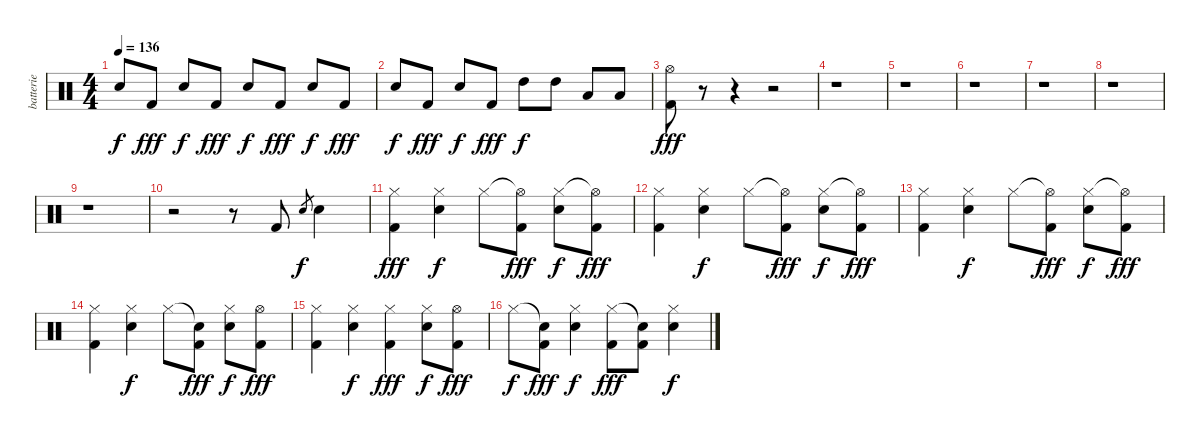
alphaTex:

\track ("batterie" "batterie") {instrument percussion}
\staff {score}
\articulation defaults
\ts (4 4)
\tempo 136
\clef neutral
\ks c "Electric Snare (hit)".8{dy f} "Kick (hit) 2".8{dy fff} "Electric Snare (hit)".8{dy f} "Kick (hit) 2".8{dy fff} "Electric Snare (hit)".8{dy f} "Kick (hit) 2".8{dy fff} "Electric Snare (hit)".8{dy f} "Kick (hit) 2".8{dy fff}
|
"Electric Snare (hit)".8{dy f} "Kick (hit) 2".8{dy fff} "Electric Snare (hit)".8{dy f} "Kick (hit) 2".8{dy fff} "High Tom (hit)".8{dy f} "High Tom (hit)".8 "Low Tom (hit)".8 "Low Tom (hit)".8 |
("Hi-Hat (open)" "Kick (hit) 2").8{dy fff} r.8 r.4 r.2 |
r.1 |
r.1 |
r.1 |
r.1 |
r.1 |
r.1 |
r.2 r.8 "Kick (hit) 2".8 "Electric Snare (hit)".8{gr dy f} "Electric Snare (hit)".4 |
("Hi-Hat (closed)" "Kick (hit) 2").4{dy fff} ("Hi-Hat (closed)" "Electric Snare (hit)").4{dy f} "Hi-Hat (closed)".8 ("Hi-Hat (open)"{t} "Kick (hit) 2").8{dy fff} ("Hi-Hat (closed)" "Electric Snare (hit)").8{dy f} ("Hi-Hat (open)"{t} "Kick (hit) 2").8{dy fff} |
("Hi-Hat (closed)" "Kick (hit) 2").4 ("Hi-Hat (closed)" "Electric Snare (hit)").4{dy f} "Hi-Hat (closed)".8 ("Hi-Hat (open)"{t} "Kick (hit) 2").8{dy fff} ("Hi-Hat (closed)" "Electric Snare (hit)").8{dy f} ("Hi-Hat (open)"{t} "Kick (hit) 2").8{dy fff} |
("Hi-Hat (closed)" "Kick (hit) 2").4 ("Hi-Hat (closed)" "Electric Snare (hit)").4{dy f} "Hi-Hat (closed)".8 ("Hi-Hat (open)"{t} "Kick (hit) 2").8{dy fff} ("Hi-Hat (closed)" "Electric Snare (hit)").8{dy f} ("Hi-Hat (open)"{t} "Kick (hit) 2").8{dy fff} |
("Hi-Hat (closed)" "Kick (hit) 2").4 ("Hi-Hat (closed)" "Electric Snare (hit)").4{dy f} "Hi-Hat (closed)".8 ("Snare (hit)"{t} "Kick (hit) 2").8{dy fff} ("Hi-Hat (closed)" "Electric Snare (hit)").8{dy f} ("Hi-Hat (open)" "Kick (hit) 2").8{dy fff} |
("Hi-Hat (closed)" "Kick (hit) 2").4 ("Hi-Hat (closed)" "Electric Snare (hit)").4{dy f} ("Hi-Hat (closed)" "Kick (hit) 2").4{dy fff} ("Hi-Hat (closed)" "Electric Snare (hit)").8{dy f} ("Hi-Hat (open)" "Kick (hit) 2").8{dy fff} |
"Hi-Hat (closed)".8{dy f} ("Snare (hit)"{t} "Kick (hit) 2").8{dy fff} ("Hi-Hat (closed)" "Electric Snare (hit)").4{dy f} ("Hi-Hat (closed)" "Kick (hit) 2").8{dy fff} ("Snare (hit)"{t} "Kick (hit) 2").8 ("Hi-Hat (closed)" "Electric Snare (hit)").4{dy f}
